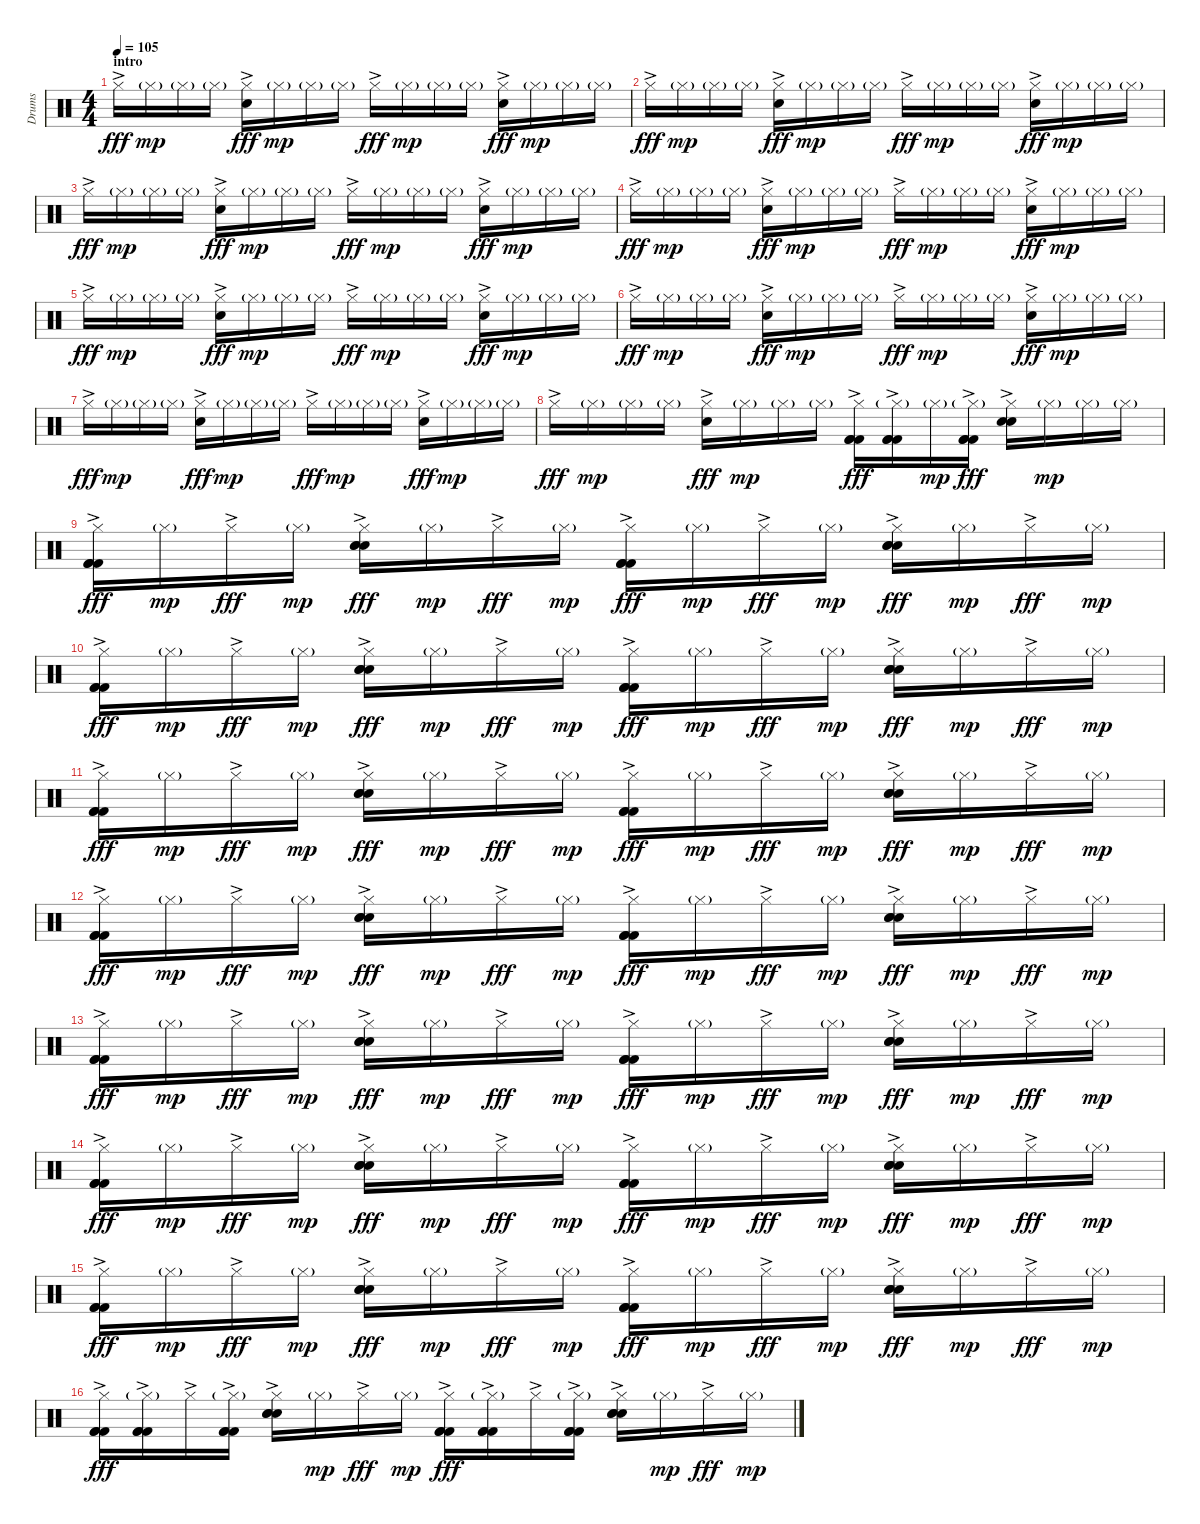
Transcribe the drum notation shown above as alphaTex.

\track ("Drums" "Drums") {instrument percussion}
\staff {score}
\articulation defaults
\ts (4 4)
\section ("" "intro")
\tempo 105
\clef neutral
\ks c "Hi-Hat (closed)"{ac}.16{dy fff} "Hi-Hat (closed)"{g}.16{dy mp} "Hi-Hat (closed)"{g}.16 "Hi-Hat (closed)"{g}.16
("Hi-Hat (closed)"{ac} "Hand Clap (hit)").16{dy fff} "Hi-Hat (closed)"{g}.16{dy mp} "Hi-Hat (closed)"{g}.16 "Hi-Hat (closed)"{g}.16 "Hi-Hat (closed)"{ac}.16{dy fff} "Hi-Hat (closed)"{g}.16{dy mp} "Hi-Hat (closed)"{g}.16 "Hi-Hat (closed)"{g}.16 ("Hi-Hat (closed)"{ac} "Hand Clap (hit)").16{dy fff} "Hi-Hat (closed)"{g}.16{dy mp} "Hi-Hat (closed)"{g}.16 "Hi-Hat (closed)"{g}.16 |
"Hi-Hat (closed)"{ac}.16{dy fff} "Hi-Hat (closed)"{g}.16{dy mp} "Hi-Hat (closed)"{g}.16 "Hi-Hat (closed)"{g}.16 ("Hi-Hat (closed)"{ac} "Hand Clap (hit)").16{dy fff} "Hi-Hat (closed)"{g}.16{dy mp} "Hi-Hat (closed)"{g}.16 "Hi-Hat (closed)"{g}.16 "Hi-Hat (closed)"{ac}.16{dy fff} "Hi-Hat (closed)"{g}.16{dy mp} "Hi-Hat (closed)"{g}.16 "Hi-Hat (closed)"{g}.16 ("Hi-Hat (closed)"{ac} "Hand Clap (hit)").16{dy fff} "Hi-Hat (closed)"{g}.16{dy mp} "Hi-Hat (closed)"{g}.16 "Hi-Hat (closed)"{g}.16 |
"Hi-Hat (closed)"{ac}.16{dy fff} "Hi-Hat (closed)"{g}.16{dy mp} "Hi-Hat (closed)"{g}.16 "Hi-Hat (closed)"{g}.16 ("Hi-Hat (closed)"{ac} "Hand Clap (hit)").16{dy fff} "Hi-Hat (closed)"{g}.16{dy mp} "Hi-Hat (closed)"{g}.16 "Hi-Hat (closed)"{g}.16 "Hi-Hat (closed)"{ac}.16{dy fff} "Hi-Hat (closed)"{g}.16{dy mp} "Hi-Hat (closed)"{g}.16 "Hi-Hat (closed)"{g}.16 ("Hi-Hat (closed)"{ac} "Hand Clap (hit)").16{dy fff} "Hi-Hat (closed)"{g}.16{dy mp} "Hi-Hat (closed)"{g}.16 "Hi-Hat (closed)"{g}.16 |
"Hi-Hat (closed)"{ac}.16{dy fff} "Hi-Hat (closed)"{g}.16{dy mp} "Hi-Hat (closed)"{g}.16 "Hi-Hat (closed)"{g}.16 ("Hi-Hat (closed)"{ac} "Hand Clap (hit)").16{dy fff} "Hi-Hat (closed)"{g}.16{dy mp} "Hi-Hat (closed)"{g}.16 "Hi-Hat (closed)"{g}.16 "Hi-Hat (closed)"{ac}.16{dy fff} "Hi-Hat (closed)"{g}.16{dy mp} "Hi-Hat (closed)"{g}.16 "Hi-Hat (closed)"{g}.16 ("Hi-Hat (closed)"{ac} "Hand Clap (hit)").16{dy fff} "Hi-Hat (closed)"{g}.16{dy mp} "Hi-Hat (closed)"{g}.16 "Hi-Hat (closed)"{g}.16 |
"Hi-Hat (closed)"{ac}.16{dy fff} "Hi-Hat (closed)"{g}.16{dy mp} "Hi-Hat (closed)"{g}.16 "Hi-Hat (closed)"{g}.16 ("Hi-Hat (closed)"{ac} "Hand Clap (hit)").16{dy fff} "Hi-Hat (closed)"{g}.16{dy mp} "Hi-Hat (closed)"{g}.16 "Hi-Hat (closed)"{g}.16 "Hi-Hat (closed)"{ac}.16{dy fff} "Hi-Hat (closed)"{g}.16{dy mp} "Hi-Hat (closed)"{g}.16 "Hi-Hat (closed)"{g}.16 ("Hi-Hat (closed)"{ac} "Hand Clap (hit)").16{dy fff} "Hi-Hat (closed)"{g}.16{dy mp} "Hi-Hat (closed)"{g}.16 "Hi-Hat (closed)"{g}.16 |
"Hi-Hat (closed)"{ac}.16{dy fff} "Hi-Hat (closed)"{g}.16{dy mp} "Hi-Hat (closed)"{g}.16 "Hi-Hat (closed)"{g}.16 ("Hi-Hat (closed)"{ac} "Hand Clap (hit)").16{dy fff} "Hi-Hat (closed)"{g}.16{dy mp} "Hi-Hat (closed)"{g}.16 "Hi-Hat (closed)"{g}.16 "Hi-Hat (closed)"{ac}.16{dy fff} "Hi-Hat (closed)"{g}.16{dy mp} "Hi-Hat (closed)"{g}.16 "Hi-Hat (closed)"{g}.16 ("Hi-Hat (closed)"{ac} "Hand Clap (hit)").16{dy fff} "Hi-Hat (closed)"{g}.16{dy mp} "Hi-Hat (closed)"{g}.16 "Hi-Hat (closed)"{g}.16 |
"Hi-Hat (closed)"{ac}.16{dy fff} "Hi-Hat (closed)"{g}.16{dy mp} "Hi-Hat (closed)"{g}.16 "Hi-Hat (closed)"{g}.16 ("Hi-Hat (closed)"{ac} "Hand Clap (hit)").16{dy fff} "Hi-Hat (closed)"{g}.16{dy mp} "Hi-Hat (closed)"{g}.16 "Hi-Hat (closed)"{g}.16 "Hi-Hat (closed)"{ac}.16{dy fff} "Hi-Hat (closed)"{g}.16{dy mp} "Hi-Hat (closed)"{g}.16 "Hi-Hat (closed)"{g}.16 ("Hi-Hat (closed)"{ac} "Hand Clap (hit)").16{dy fff} "Hi-Hat (closed)"{g}.16{dy mp} "Hi-Hat (closed)"{g}.16 "Hi-Hat (closed)"{g}.16 |
"Hi-Hat (closed)"{ac}.16{dy fff} "Hi-Hat (closed)"{g}.16{dy mp} "Hi-Hat (closed)"{g}.16 "Hi-Hat (closed)"{g}.16 ("Hi-Hat (closed)"{ac} "Hand Clap (hit)").16{dy fff} "Hi-Hat (closed)"{g}.16{dy mp} "Hi-Hat (closed)"{g}.16 "Hi-Hat (closed)"{g}.16 ("Hi-Hat (closed)"{ac} "Kick (hit) 2"{ac} "Kick (hit) 2"{ac} "Kick (hit) 2"{ac}).16{dy fff} ("Hi-Hat (closed)"{g} "Kick (hit) 2"{ac} "Kick (hit) 2"{ac} "Kick (hit) 2"{ac}).16 "Hi-Hat (closed)"{g}.16{dy mp} ("Hi-Hat (closed)"{g} "Kick (hit) 2"{ac} "Kick (hit) 2"{ac} "Kick (hit) 2"{ac}).16{dy fff} ("Hi-Hat (closed)"{ac} "Electric Snare (hit)"{ac} "Electric Snare (hit)"{ac}).16 "Hi-Hat (closed)"{g}.16{dy mp} "Hi-Hat (closed)"{g}.16 "Hi-Hat (closed)"{g}.16 |
("Hi-Hat (closed)"{ac} "Kick (hit) 2"{ac} "Kick (hit) 2"{ac} "Kick (hit) 2"{ac}).16{dy fff} "Hi-Hat (closed)"{g}.16{dy mp} "Hi-Hat (closed)"{ac}.16{dy fff} "Hi-Hat (closed)"{g}.16{dy mp} ("Hi-Hat (closed)"{ac} "Snare (hit) 2"{ac} "Snare (hit) 2"{ac} "Snare (hit) 2"{ac}).16{dy fff} "Hi-Hat (closed)"{g}.16{dy mp} "Hi-Hat (closed)"{ac}.16{dy fff} "Hi-Hat (closed)"{g}.16{dy mp} ("Hi-Hat (closed)"{ac} "Kick (hit) 2"{ac} "Kick (hit) 2"{ac} "Kick (hit) 2"{ac}).16{dy fff} "Hi-Hat (closed)"{g}.16{dy mp} "Hi-Hat (closed)"{ac}.16{dy fff} "Hi-Hat (closed)"{g}.16{dy mp} ("Hi-Hat (closed)"{ac} "Snare (hit) 2"{ac} "Snare (hit) 2"{ac} "Snare (hit) 2"{ac}).16{dy fff} "Hi-Hat (closed)"{g}.16{dy mp} "Hi-Hat (closed)"{ac}.16{dy fff} "Hi-Hat (closed)"{g}.16{dy mp} |
("Hi-Hat (closed)"{ac} "Kick (hit) 2"{ac} "Kick (hit) 2"{ac} "Kick (hit) 2"{ac}).16{dy fff} "Hi-Hat (closed)"{g}.16{dy mp} "Hi-Hat (closed)"{ac}.16{dy fff} "Hi-Hat (closed)"{g}.16{dy mp} ("Hi-Hat (closed)"{ac} "Snare (hit) 2"{ac} "Snare (hit) 2"{ac} "Snare (hit) 2"{ac}).16{dy fff} "Hi-Hat (closed)"{g}.16{dy mp} "Hi-Hat (closed)"{ac}.16{dy fff} "Hi-Hat (closed)"{g}.16{dy mp} ("Hi-Hat (closed)"{ac} "Kick (hit) 2"{ac} "Kick (hit) 2"{ac} "Kick (hit) 2"{ac}).16{dy fff} "Hi-Hat (closed)"{g}.16{dy mp} "Hi-Hat (closed)"{ac}.16{dy fff} "Hi-Hat (closed)"{g}.16{dy mp} ("Hi-Hat (closed)"{ac} "Snare (hit) 2"{ac} "Snare (hit) 2"{ac} "Snare (hit) 2"{ac}).16{dy fff} "Hi-Hat (closed)"{g}.16{dy mp} "Hi-Hat (closed)"{ac}.16{dy fff} "Hi-Hat (closed)"{g}.16{dy mp} |
("Hi-Hat (closed)"{ac} "Kick (hit) 2"{ac} "Kick (hit) 2"{ac} "Kick (hit) 2"{ac}).16{dy fff} "Hi-Hat (closed)"{g}.16{dy mp} "Hi-Hat (closed)"{ac}.16{dy fff} "Hi-Hat (closed)"{g}.16{dy mp} ("Hi-Hat (closed)"{ac} "Snare (hit) 2"{ac} "Snare (hit) 2"{ac} "Snare (hit) 2"{ac}).16{dy fff} "Hi-Hat (closed)"{g}.16{dy mp} "Hi-Hat (closed)"{ac}.16{dy fff} "Hi-Hat (closed)"{g}.16{dy mp} ("Hi-Hat (closed)"{ac} "Kick (hit) 2"{ac} "Kick (hit) 2"{ac} "Kick (hit) 2"{ac}).16{dy fff} "Hi-Hat (closed)"{g}.16{dy mp} "Hi-Hat (closed)"{ac}.16{dy fff} "Hi-Hat (closed)"{g}.16{dy mp} ("Hi-Hat (closed)"{ac} "Snare (hit) 2"{ac} "Snare (hit) 2"{ac} "Snare (hit) 2"{ac}).16{dy fff} "Hi-Hat (closed)"{g}.16{dy mp} "Hi-Hat (closed)"{ac}.16{dy fff} "Hi-Hat (closed)"{g}.16{dy mp} |
("Hi-Hat (closed)"{ac} "Kick (hit) 2"{ac} "Kick (hit) 2"{ac} "Kick (hit) 2"{ac}).16{dy fff} "Hi-Hat (closed)"{g}.16{dy mp} "Hi-Hat (closed)"{ac}.16{dy fff} "Hi-Hat (closed)"{g}.16{dy mp} ("Hi-Hat (closed)"{ac} "Snare (hit) 2"{ac} "Snare (hit) 2"{ac} "Snare (hit) 2"{ac}).16{dy fff} "Hi-Hat (closed)"{g}.16{dy mp} "Hi-Hat (closed)"{ac}.16{dy fff} "Hi-Hat (closed)"{g}.16{dy mp} ("Hi-Hat (closed)"{ac} "Kick (hit) 2"{ac} "Kick (hit) 2"{ac} "Kick (hit) 2"{ac}).16{dy fff} "Hi-Hat (closed)"{g}.16{dy mp} "Hi-Hat (closed)"{ac}.16{dy fff} "Hi-Hat (closed)"{g}.16{dy mp} ("Hi-Hat (closed)"{ac} "Snare (hit) 2"{ac} "Snare (hit) 2"{ac} "Snare (hit) 2"{ac}).16{dy fff} "Hi-Hat (closed)"{g}.16{dy mp} "Hi-Hat (closed)"{ac}.16{dy fff} "Hi-Hat (closed)"{g}.16{dy mp} |
("Hi-Hat (closed)"{ac} "Kick (hit) 2"{ac} "Kick (hit) 2"{ac} "Kick (hit) 2"{ac}).16{dy fff} "Hi-Hat (closed)"{g}.16{dy mp} "Hi-Hat (closed)"{ac}.16{dy fff} "Hi-Hat (closed)"{g}.16{dy mp} ("Hi-Hat (closed)"{ac} "Snare (hit) 2"{ac} "Snare (hit) 2"{ac} "Snare (hit) 2"{ac}).16{dy fff} "Hi-Hat (closed)"{g}.16{dy mp} "Hi-Hat (closed)"{ac}.16{dy fff} "Hi-Hat (closed)"{g}.16{dy mp} ("Hi-Hat (closed)"{ac} "Kick (hit) 2"{ac} "Kick (hit) 2"{ac} "Kick (hit) 2"{ac}).16{dy fff} "Hi-Hat (closed)"{g}.16{dy mp} "Hi-Hat (closed)"{ac}.16{dy fff} "Hi-Hat (closed)"{g}.16{dy mp} ("Hi-Hat (closed)"{ac} "Snare (hit) 2"{ac} "Snare (hit) 2"{ac} "Snare (hit) 2"{ac}).16{dy fff} "Hi-Hat (closed)"{g}.16{dy mp} "Hi-Hat (closed)"{ac}.16{dy fff} "Hi-Hat (closed)"{g}.16{dy mp} |
("Hi-Hat (closed)"{ac} "Kick (hit) 2"{ac} "Kick (hit) 2"{ac} "Kick (hit) 2"{ac}).16{dy fff} "Hi-Hat (closed)"{g}.16{dy mp} "Hi-Hat (closed)"{ac}.16{dy fff} "Hi-Hat (closed)"{g}.16{dy mp} ("Hi-Hat (closed)"{ac} "Snare (hit) 2"{ac} "Snare (hit) 2"{ac} "Snare (hit) 2"{ac}).16{dy fff} "Hi-Hat (closed)"{g}.16{dy mp} "Hi-Hat (closed)"{ac}.16{dy fff} "Hi-Hat (closed)"{g}.16{dy mp} ("Hi-Hat (closed)"{ac} "Kick (hit) 2"{ac} "Kick (hit) 2"{ac} "Kick (hit) 2"{ac}).16{dy fff} "Hi-Hat (closed)"{g}.16{dy mp} "Hi-Hat (closed)"{ac}.16{dy fff} "Hi-Hat (closed)"{g}.16{dy mp} ("Hi-Hat (closed)"{ac} "Snare (hit) 2"{ac} "Snare (hit) 2"{ac} "Snare (hit) 2"{ac}).16{dy fff} "Hi-Hat (closed)"{g}.16{dy mp} "Hi-Hat (closed)"{ac}.16{dy fff} "Hi-Hat (closed)"{g}.16{dy mp} |
("Hi-Hat (closed)"{ac} "Kick (hit) 2"{ac} "Kick (hit) 2"{ac} "Kick (hit) 2"{ac}).16{dy fff} "Hi-Hat (closed)"{g}.16{dy mp} "Hi-Hat (closed)"{ac}.16{dy fff} "Hi-Hat (closed)"{g}.16{dy mp} ("Hi-Hat (closed)"{ac} "Snare (hit) 2"{ac} "Snare (hit) 2"{ac} "Snare (hit) 2"{ac}).16{dy fff} "Hi-Hat (closed)"{g}.16{dy mp} "Hi-Hat (closed)"{ac}.16{dy fff} "Hi-Hat (closed)"{g}.16{dy mp} ("Hi-Hat (closed)"{ac} "Kick (hit) 2"{ac} "Kick (hit) 2"{ac} "Kick (hit) 2"{ac}).16{dy fff} "Hi-Hat (closed)"{g}.16{dy mp} "Hi-Hat (closed)"{ac}.16{dy fff} "Hi-Hat (closed)"{g}.16{dy mp} ("Hi-Hat (closed)"{ac} "Snare (hit) 2"{ac} "Snare (hit) 2"{ac} "Snare (hit) 2"{ac}).16{dy fff} "Hi-Hat (closed)"{g}.16{dy mp} "Hi-Hat (closed)"{ac}.16{dy fff} "Hi-Hat (closed)"{g}.16{dy mp} |
("Hi-Hat (closed)"{ac} "Kick (hit) 2"{ac} "Kick (hit) 2"{ac} "Kick (hit) 2"{ac}).16{dy fff} ("Hi-Hat (closed)"{g} "Kick (hit) 2"{ac} "Kick (hit) 2"{ac} "Kick (hit) 2"{ac}).16 "Hi-Hat (closed)"{ac}.16 ("Hi-Hat (closed)"{g} "Kick (hit) 2"{ac} "Kick (hit) 2"{ac} "Kick (hit) 2"{ac}).16 ("Hi-Hat (closed)"{ac} "Snare (hit) 2"{ac} "Snare (hit) 2"{ac} "Snare (hit) 2"{ac}).16 "Hi-Hat (closed)"{g}.16{dy mp} "Hi-Hat (closed)"{ac}.16{dy fff} "Hi-Hat (closed)"{g}.16{dy mp} ("Hi-Hat (closed)"{ac} "Kick (hit) 2"{ac} "Kick (hit) 2"{ac} "Kick (hit) 2"{ac}).16{dy fff} ("Hi-Hat (closed)"{g} "Kick (hit) 2"{ac} "Kick (hit) 2"{ac} "Kick (hit) 2"{ac}).16 "Hi-Hat (closed)"{ac}.16 ("Hi-Hat (closed)"{g} "Kick (hit) 2"{ac} "Kick (hit) 2"{ac} "Kick (hit) 2"{ac}).16 ("Hi-Hat (closed)"{ac} "Snare (hit) 2"{ac} "Snare (hit) 2"{ac} "Snare (hit) 2"{ac}).16 "Hi-Hat (closed)"{g}.16{dy mp} "Hi-Hat (closed)"{ac}.16{dy fff} "Hi-Hat (closed)"{g}.16{dy mp}
